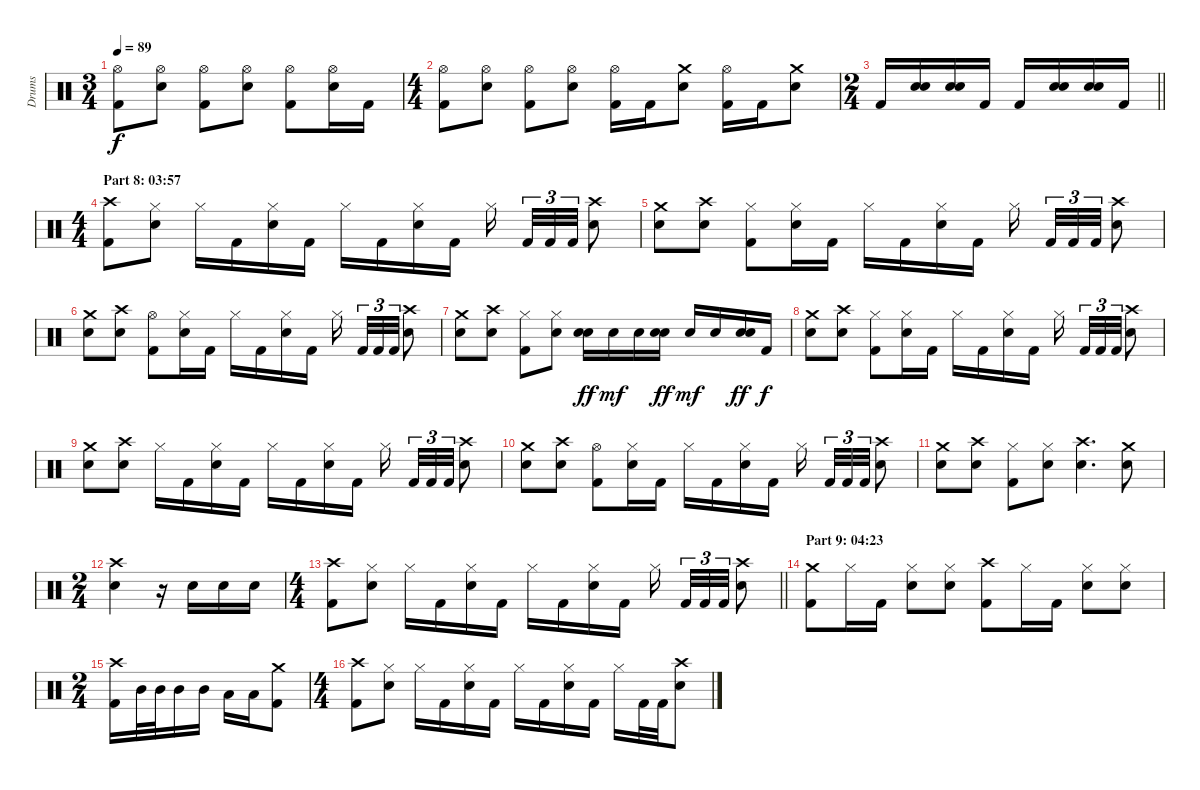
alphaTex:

\track ("Drums" "Drums") {instrument percussion}
\staff {score}
\articulation defaults
\ts (3 4)
\tempo 89
\clef neutral
\ks c
("Hi-Hat (open)" "Kick (hit) 2").8{dy f} ("Hi-Hat (open)" "Electric Snare (hit)").8 ("Hi-Hat (open)" "Kick (hit) 2").8 ("Hi-Hat (open)" "Electric Snare (hit)").8 ("Hi-Hat (open)" "Kick (hit) 2").8 ("Hi-Hat (open)" "Electric Snare (hit)").16 "Kick (hit) 2".16 |
\ts (4 4)
("Hi-Hat (open)" "Kick (hit) 2").8 ("Hi-Hat (open)" "Electric Snare (hit)").8 ("Hi-Hat (open)" "Kick (hit) 2").8 ("Hi-Hat (open)" "Electric Snare (hit)").8 ("Hi-Hat (open)" "Kick (hit) 2").16 "Kick (hit) 2".16 ("Crash medium (hit)" "Electric Snare (hit)").8 ("Hi-Hat (open)" "Kick (hit) 2").16 "Kick (hit) 2".16 ("Crash medium (hit)" "Electric Snare (hit)").8 |
\ts (2 4)
\barLineRight lightlight "Kick (hit) 2".16
("Electric Snare (hit)" "Electric Snare (hit)").16{bd 30} ("Electric Snare (hit)" "Electric Snare (hit)").16{bd 30} "Kick (hit) 2".16 "Kick (hit) 2".16 ("Electric Snare (hit)" "Electric Snare (hit)").16{bd 30} ("Electric Snare (hit)" "Electric Snare (hit)").16{bd 30} "Kick (hit) 2".16 |
\ts (4 4)
\section ("" "Part 8: 03:57")
("Crash high (hit)" "Kick (hit) 2").8 ("Hi-Hat (closed)" "Electric Snare (hit)").8 "Hi-Hat (closed)".16 "Kick (hit) 2".16 ("Hi-Hat (closed)" "Electric Snare (hit)").16 "Kick (hit) 2".16 "Hi-Hat (closed)".16 "Kick (hit) 2".16 ("Hi-Hat (closed)" "Electric Snare (hit)").16 "Kick (hit) 2".16 "Hi-Hat (closed)".16{beam splitsecondary} "Kick (hit) 2".32{tu (3 2)} "Kick (hit) 2".32{tu (3 2)} "Kick (hit) 2".32{tu (3 2)} ("Crash high (hit)" "Electric Snare (hit)").8 |
("Crash medium (hit)" "Electric Snare (hit)").8 ("Crash high (hit)" "Electric Snare (hit)").8 ("Hi-Hat (closed)" "Kick (hit) 2").8 ("Hi-Hat (closed)" "Electric Snare (hit)").16 "Kick (hit) 2".16 "Hi-Hat (closed)".16 "Kick (hit) 2".16 ("Hi-Hat (closed)" "Electric Snare (hit)").16 "Kick (hit) 2".16 "Hi-Hat (closed)".16{beam splitsecondary} "Kick (hit) 2".32{tu (3 2)} "Kick (hit) 2".32{tu (3 2)} "Kick (hit) 2".32{tu (3 2)} ("Crash high (hit)" "Electric Snare (hit)").8 |
("Crash medium (hit)" "Electric Snare (hit)").8 ("Crash high (hit)" "Electric Snare (hit)").8 ("Hi-Hat (open)" "Kick (hit) 2").8 ("Hi-Hat (closed)" "Electric Snare (hit)").16 "Kick (hit) 2".16 "Hi-Hat (closed)".16 "Kick (hit) 2".16 ("Hi-Hat (closed)" "Electric Snare (hit)").16 "Kick (hit) 2".16 "Hi-Hat (closed)".16{beam splitsecondary} "Kick (hit) 2".32{tu (3 2)} "Kick (hit) 2".32{tu (3 2)} "Kick (hit) 2".32{tu (3 2)} ("Crash high (hit)" "Electric Snare (hit)").8 |
("Crash medium (hit)" "Electric Snare (hit)").8 ("Crash high (hit)" "Electric Snare (hit)").8 ("Hi-Hat (closed)" "Kick (hit) 2").8 ("Hi-Hat (closed)" "Electric Snare (hit)").8 ("Electric Snare (hit)" "Electric Snare (hit)").16{bd 30 dy ff} "Electric Snare (hit)".16{dy mf} "Electric Snare (hit)".16 ("Electric Snare (hit)" "Electric Snare (hit)").16{bd 30 dy ff} "Electric Snare (hit)".16{dy mf} "Electric Snare (hit)".16 ("Electric Snare (hit)" "Electric Snare (hit)").16{bd 30 dy ff} "Kick (hit) 2".16{dy f} |
("Crash medium (hit)" "Electric Snare (hit)").8 ("Crash high (hit)" "Electric Snare (hit)").8 ("Hi-Hat (closed)" "Kick (hit) 2").8 ("Hi-Hat (closed)" "Electric Snare (hit)").16 "Kick (hit) 2".16 "Hi-Hat (closed)".16 "Kick (hit) 2".16 ("Hi-Hat (closed)" "Electric Snare (hit)").16 "Kick (hit) 2".16 "Hi-Hat (closed)".16{beam splitsecondary} "Kick (hit) 2".32{tu (3 2)} "Kick (hit) 2".32{tu (3 2)} "Kick (hit) 2".32{tu (3 2)} ("Crash high (hit)" "Electric Snare (hit)").8 |
("Crash medium (hit)" "Electric Snare (hit)").8 ("Crash high (hit)" "Electric Snare (hit)").8 "Hi-Hat (closed)".16 "Kick (hit) 2".16 ("Hi-Hat (closed)" "Electric Snare (hit)").16 "Kick (hit) 2".16 "Hi-Hat (closed)".16 "Kick (hit) 2".16 ("Hi-Hat (closed)" "Electric Snare (hit)").16 "Kick (hit) 2".16 "Hi-Hat (closed)".16{beam splitsecondary} "Kick (hit) 2".32{tu (3 2)} "Kick (hit) 2".32{tu (3 2)} "Kick (hit) 2".32{tu (3 2)} ("Crash high (hit)" "Electric Snare (hit)").8 |
("Crash medium (hit)" "Electric Snare (hit)").8 ("Crash high (hit)" "Electric Snare (hit)").8 ("Hi-Hat (open)" "Kick (hit) 2").8 ("Hi-Hat (closed)" "Electric Snare (hit)").16 "Kick (hit) 2".16 "Hi-Hat (closed)".16 "Kick (hit) 2".16 ("Hi-Hat (closed)" "Electric Snare (hit)").16 "Kick (hit) 2".16 "Hi-Hat (closed)".16{beam splitsecondary} "Kick (hit) 2".32{tu (3 2)} "Kick (hit) 2".32{tu (3 2)} "Kick (hit) 2".32{tu (3 2)} ("Crash high (hit)" "Electric Snare (hit)").8 |
("Crash medium (hit)" "Electric Snare (hit)").8 ("Crash high (hit)" "Electric Snare (hit)").8 ("Hi-Hat (closed)" "Kick (hit) 2").8 ("Hi-Hat (closed)" "Electric Snare (hit)").8 ("Crash high (hit)" "Electric Snare (hit)").4{d} ("Crash medium (hit)" "Electric Snare (hit)").8 |
\ts (2 4)
("Crash high (hit)" "Electric Snare (hit)").4 r.16 "Electric Snare (hit)".16 "Electric Snare (hit)".16 "Electric Snare (hit)".16 |
\ts (4 4)
\barLineRight lightlight
("Crash high (hit)" "Kick (hit) 2").8 ("Hi-Hat (closed)" "Electric Snare (hit)").8 "Hi-Hat (closed)".16 "Kick (hit) 2".16 ("Hi-Hat (closed)" "Electric Snare (hit)").16 "Kick (hit) 2".16 "Hi-Hat (closed)".16 "Kick (hit) 2".16 ("Hi-Hat (closed)" "Electric Snare (hit)").16 "Kick (hit) 2".16 "Hi-Hat (closed)".16{beam splitsecondary} "Kick (hit) 2".32{tu (3 2)} "Kick (hit) 2".32{tu (3 2)} "Kick (hit) 2".32{tu (3 2)} ("Crash high (hit)" "Electric Snare (hit)").8 |
\section ("" "Part 9: 04:23")
("Crash medium (hit)" "Kick (hit) 2").8 "Hi-Hat (closed)".16 "Kick (hit) 2".16 ("Hi-Hat (closed)" "Electric Snare (hit)").8 ("Hi-Hat (closed)" "Electric Snare (hit)").8 ("Crash high (hit)" "Kick (hit) 2").8 "Hi-Hat (closed)".16 "Kick (hit) 2".16 ("Hi-Hat (closed)" "Electric Snare (hit)").8 ("Hi-Hat (closed)" "Electric Snare (hit)").8 |
\ts (2 4)
("Crash high (hit)" "Kick (hit) 2").16 "Mid Tom (hit)".32 "Mid Tom (hit)".32 "Mid Tom (hit)".16 "Mid Tom (hit)".16 "Low Tom (hit)".16 "Low Tom (hit)".16 ("Crash medium (hit)" "Kick (hit) 2").8 |
\ts (4 4)
("Crash high (hit)" "Kick (hit) 2").8 ("Hi-Hat (closed)" "Electric Snare (hit)").8 "Hi-Hat (closed)".16 "Kick (hit) 2".16 ("Hi-Hat (closed)" "Electric Snare (hit)").16 "Kick (hit) 2".16 "Hi-Hat (closed)".16 "Kick (hit) 2".16 ("Hi-Hat (closed)" "Electric Snare (hit)").16 "Kick (hit) 2".16 "Hi-Hat (closed)".16 "Kick (hit) 2".32 "Kick (hit) 2".32 ("Crash high (hit)" "Electric Snare (hit)").8
